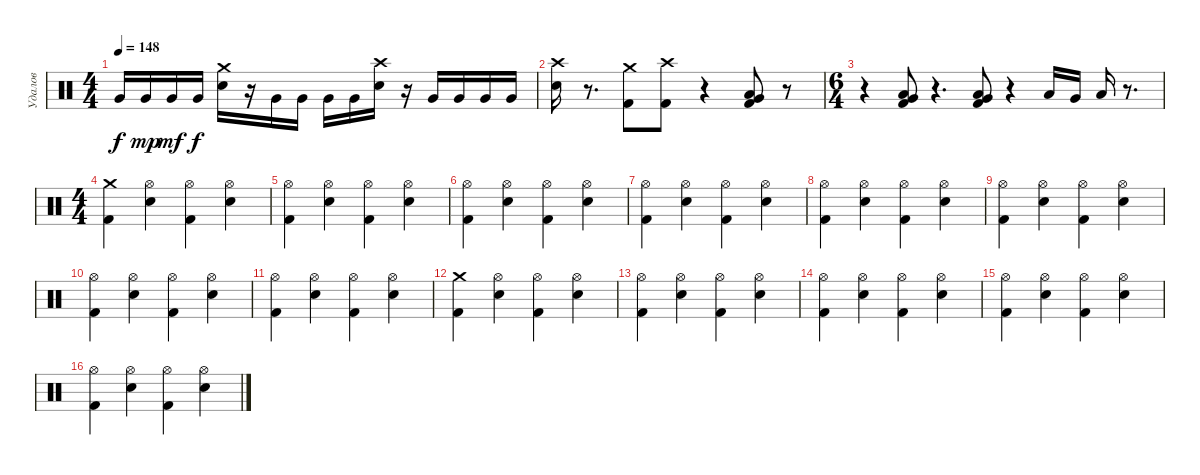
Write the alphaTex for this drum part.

\track ("Удалов" "Удалов") {instrument percussion}
\staff {score}
\articulation defaults
\ts (4 4)
\tempo 148
\clef neutral
\ks c "Very Low Tom (hit)".16{dy f} "Very Low Tom (hit)".16{dy mp} "Very Low Tom (hit)".16{dy mf} "Very Low Tom (hit)".16{dy f}
("Crash medium (hit)" "Snare (hit) 2").16 r.16 "Very Low Tom (hit)".16 "Very Low Tom (hit)".16 "Very Low Tom (hit)".16 "Very Low Tom (hit)".16 ("Snare (hit) 2" "Crash high (hit)").16 r.16 "Very Low Tom (hit)".16 "Very Low Tom (hit)".16 "Very Low Tom (hit)".16 "Very Low Tom (hit)".16 |
("Snare (hit) 2" "Crash high (hit)").16 r.8{d} ("Kick (hit) 2" "Crash medium (hit)").8 ("Kick (hit) 2" "Crash high (hit)").8 r.4 ("Kick (hit) 2" "Very Low Tom (hit)" "Low Tom (hit)").8 r.8 |
\ts (6 4)
r.4 ("Kick (hit) 2" "Very Low Tom (hit)" "Low Tom (hit)").8 r.4{d} ("Kick (hit) 2" "Very Low Tom (hit)" "Low Tom (hit)").8 r.4 "Low Tom (hit)".16 "Very Low Tom (hit)".16 "Low Floor Tom (hit)".16 r.8{d} |
\ts (4 4)
("Kick (hit) 2" "Crash medium (hit)").4 ("Hi-Hat (open)" "Snare (hit) 2").4 ("Hi-Hat (open)" "Kick (hit) 2").4 ("Hi-Hat (open)" "Snare (hit) 2").4 |
("Kick (hit) 2" "Hi-Hat (open)").4 ("Snare (hit) 2" "Hi-Hat (open)").4 ("Kick (hit) 2" "Hi-Hat (open)").4 ("Snare (hit) 2" "Hi-Hat (open)").4 |
("Kick (hit) 2" "Hi-Hat (open)").4 ("Snare (hit) 2" "Hi-Hat (open)").4 ("Kick (hit) 2" "Hi-Hat (open)").4 ("Snare (hit) 2" "Hi-Hat (open)").4 |
("Kick (hit) 2" "Hi-Hat (open)").4 ("Snare (hit) 2" "Hi-Hat (open)").4 ("Kick (hit) 2" "Hi-Hat (open)").4 ("Snare (hit) 2" "Hi-Hat (open)").4 |
("Kick (hit) 2" "Hi-Hat (open)").4 ("Snare (hit) 2" "Hi-Hat (open)").4 ("Kick (hit) 2" "Hi-Hat (open)").4 ("Snare (hit) 2" "Hi-Hat (open)").4 |
("Kick (hit) 2" "Hi-Hat (open)").4 ("Snare (hit) 2" "Hi-Hat (open)").4 ("Kick (hit) 2" "Hi-Hat (open)").4 ("Snare (hit) 2" "Hi-Hat (open)").4 |
("Kick (hit) 2" "Hi-Hat (open)").4 ("Snare (hit) 2" "Hi-Hat (open)").4 ("Kick (hit) 2" "Hi-Hat (open)").4 ("Snare (hit) 2" "Hi-Hat (open)").4 |
("Kick (hit) 2" "Hi-Hat (open)").4 ("Snare (hit) 2" "Hi-Hat (open)").4 ("Kick (hit) 2" "Hi-Hat (open)").4 ("Snare (hit) 2" "Hi-Hat (open)").4 |
("Kick (hit) 2" "Crash medium (hit)").4 ("Snare (hit) 2" "Hi-Hat (open)").4 ("Kick (hit) 2" "Hi-Hat (open)").4 ("Snare (hit) 2" "Hi-Hat (open)").4 |
("Kick (hit) 2" "Hi-Hat (open)").4 ("Snare (hit) 2" "Hi-Hat (open)").4 ("Kick (hit) 2" "Hi-Hat (open)").4 ("Snare (hit) 2" "Hi-Hat (open)").4 |
("Kick (hit) 2" "Hi-Hat (open)").4 ("Snare (hit) 2" "Hi-Hat (open)").4 ("Kick (hit) 2" "Hi-Hat (open)").4 ("Snare (hit) 2" "Hi-Hat (open)").4 |
("Kick (hit) 2" "Hi-Hat (open)").4 ("Snare (hit) 2" "Hi-Hat (open)").4 ("Kick (hit) 2" "Hi-Hat (open)").4 ("Snare (hit) 2" "Hi-Hat (open)").4 |
("Kick (hit) 2" "Hi-Hat (open)").4 ("Snare (hit) 2" "Hi-Hat (open)").4 ("Kick (hit) 2" "Hi-Hat (open)").4 ("Snare (hit) 2" "Hi-Hat (open)").4
